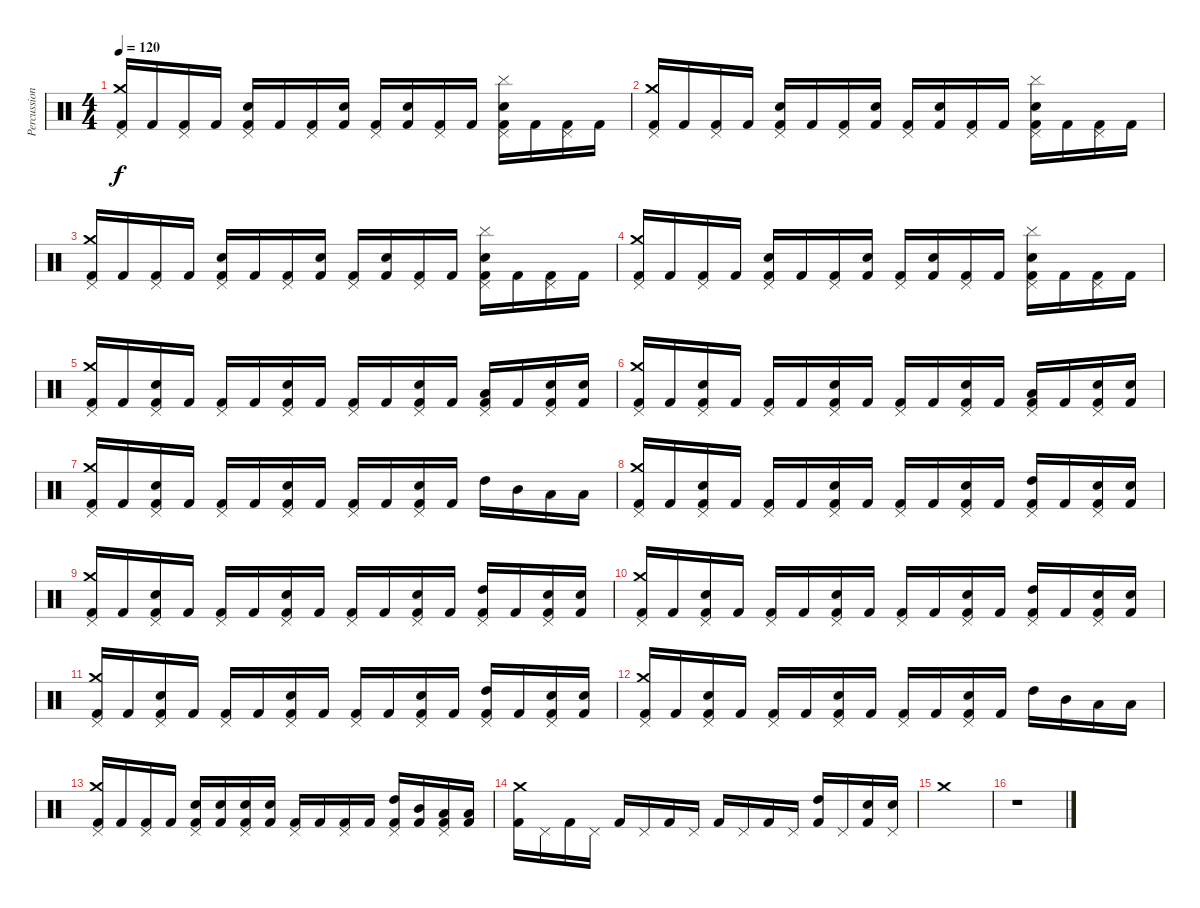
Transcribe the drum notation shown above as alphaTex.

\track ("Percussion" "Percussion") {instrument percussion}
\staff {score}
\articulation defaults
\ts (4 4)
\tempo 120
\clef neutral
\ks c
("Pedal Hi-Hat (hit)" "Crash medium (hit)" "Kick (hit) 2").16{dy f} "Kick (hit) 2".16 ("Pedal Hi-Hat (hit)" "Kick (hit) 2").16 "Kick (hit) 2".16 ("Pedal Hi-Hat (hit)" "Electric Snare (hit)" "Kick (hit) 2").16 "Kick (hit) 2".16 ("Pedal Hi-Hat (hit)" "Kick (hit) 2").16 ("Snare (hit) 2" "Kick (hit) 2").16 ("Pedal Hi-Hat (hit)" "Kick (hit) 2").16 ("Snare (hit) 2" "Kick (hit) 2").16 ("Pedal Hi-Hat (hit)" "Kick (hit) 2").16 "Kick (hit) 2".16 ("Pedal Hi-Hat (hit)" "Cymbal (hit)" "Electric Snare (hit)" "Kick (hit) 2").16 "Kick (hit) 2".16 ("Pedal Hi-Hat (hit)" "Kick (hit) 2").16 "Kick (hit) 2".16 |
("Pedal Hi-Hat (hit)" "Crash medium (hit)" "Kick (hit) 2").16 "Kick (hit) 2".16 ("Pedal Hi-Hat (hit)" "Kick (hit) 2").16 "Kick (hit) 2".16 ("Pedal Hi-Hat (hit)" "Electric Snare (hit)" "Kick (hit) 2").16 "Kick (hit) 2".16 ("Pedal Hi-Hat (hit)" "Kick (hit) 2").16 ("Snare (hit) 2" "Kick (hit) 2").16 ("Pedal Hi-Hat (hit)" "Kick (hit) 2").16 ("Snare (hit) 2" "Kick (hit) 2").16 ("Pedal Hi-Hat (hit)" "Kick (hit) 2").16 "Kick (hit) 2".16 ("Pedal Hi-Hat (hit)" "Cymbal (hit)" "Electric Snare (hit)" "Kick (hit) 2").16 "Kick (hit) 2".16 ("Pedal Hi-Hat (hit)" "Kick (hit) 2").16 "Kick (hit) 2".16 |
("Pedal Hi-Hat (hit)" "Crash medium (hit)" "Kick (hit) 2").16 "Kick (hit) 2".16 ("Pedal Hi-Hat (hit)" "Kick (hit) 2").16 "Kick (hit) 2".16 ("Pedal Hi-Hat (hit)" "Electric Snare (hit)" "Kick (hit) 2").16 "Kick (hit) 2".16 ("Pedal Hi-Hat (hit)" "Kick (hit) 2").16 ("Snare (hit) 2" "Kick (hit) 2").16 ("Pedal Hi-Hat (hit)" "Kick (hit) 2").16 ("Snare (hit) 2" "Kick (hit) 2").16 ("Pedal Hi-Hat (hit)" "Kick (hit) 2").16 "Kick (hit) 2".16 ("Pedal Hi-Hat (hit)" "Cymbal (hit)" "Electric Snare (hit)" "Kick (hit) 2").16 "Kick (hit) 2".16 ("Pedal Hi-Hat (hit)" "Kick (hit) 2").16 "Kick (hit) 2".16 |
("Pedal Hi-Hat (hit)" "Crash medium (hit)" "Kick (hit) 2").16 "Kick (hit) 2".16 ("Pedal Hi-Hat (hit)" "Kick (hit) 2").16 "Kick (hit) 2".16 ("Pedal Hi-Hat (hit)" "Electric Snare (hit)" "Kick (hit) 2").16 "Kick (hit) 2".16 ("Pedal Hi-Hat (hit)" "Kick (hit) 2").16 ("Snare (hit) 2" "Kick (hit) 2").16 ("Pedal Hi-Hat (hit)" "Kick (hit) 2").16 ("Snare (hit) 2" "Kick (hit) 2").16 ("Pedal Hi-Hat (hit)" "Kick (hit) 2").16 "Kick (hit) 2".16 ("Pedal Hi-Hat (hit)" "Cymbal (hit)" "Electric Snare (hit)" "Kick (hit) 2").16 "Kick (hit) 2".16 ("Pedal Hi-Hat (hit)" "Kick (hit) 2").16 "Kick (hit) 2".16 |
("Pedal Hi-Hat (hit)" "Crash medium (hit)" "Kick (hit) 2").16 "Kick (hit) 2".16 ("Pedal Hi-Hat (hit)" "Electric Snare (hit)" "Kick (hit) 2").16 "Kick (hit) 2".16 ("Pedal Hi-Hat (hit)" "Kick (hit) 2").16 "Kick (hit) 2".16 ("Pedal Hi-Hat (hit)" "Electric Snare (hit)" "Kick (hit) 2").16 "Kick (hit) 2".16 ("Pedal Hi-Hat (hit)" "Kick (hit) 2").16 "Kick (hit) 2".16 ("Pedal Hi-Hat (hit)" "Electric Snare (hit)" "Kick (hit) 2").16 "Kick (hit) 2".16 ("Pedal Hi-Hat (hit)" "Low Floor Tom (hit)" "Kick (hit) 2").16 "Kick (hit) 2".16 ("Pedal Hi-Hat (hit)" "Snare (hit) 2" "Kick (hit) 2").16 ("Electric Snare (hit)" "Kick (hit) 2").16 |
("Pedal Hi-Hat (hit)" "Crash medium (hit)" "Kick (hit) 2").16 "Kick (hit) 2".16 ("Pedal Hi-Hat (hit)" "Electric Snare (hit)" "Kick (hit) 2").16 "Kick (hit) 2".16 ("Pedal Hi-Hat (hit)" "Kick (hit) 2").16 "Kick (hit) 2".16 ("Pedal Hi-Hat (hit)" "Electric Snare (hit)" "Kick (hit) 2").16 "Kick (hit) 2".16 ("Pedal Hi-Hat (hit)" "Kick (hit) 2").16 "Kick (hit) 2".16 ("Pedal Hi-Hat (hit)" "Electric Snare (hit)" "Kick (hit) 2").16 "Kick (hit) 2".16 ("Pedal Hi-Hat (hit)" "Low Floor Tom (hit)" "Kick (hit) 2").16 "Kick (hit) 2".16 ("Pedal Hi-Hat (hit)" "Snare (hit) 2" "Kick (hit) 2").16 ("Electric Snare (hit)" "Kick (hit) 2").16 |
("Pedal Hi-Hat (hit)" "Crash medium (hit)" "Kick (hit) 2").16 "Kick (hit) 2".16 ("Pedal Hi-Hat (hit)" "Electric Snare (hit)" "Kick (hit) 2").16 "Kick (hit) 2".16 ("Pedal Hi-Hat (hit)" "Kick (hit) 2").16 "Kick (hit) 2".16 ("Pedal Hi-Hat (hit)" "Electric Snare (hit)" "Kick (hit) 2").16 "Kick (hit) 2".16 ("Pedal Hi-Hat (hit)" "Kick (hit) 2").16 "Kick (hit) 2".16 ("Pedal Hi-Hat (hit)" "Electric Snare (hit)" "Kick (hit) 2").16 "Kick (hit) 2".16 "High Tom (hit)".16 "Mid Tom (hit)".16 "Low Tom (hit)".16 "Low Floor Tom (hit)".16 |
("Pedal Hi-Hat (hit)" "Crash medium (hit)" "Kick (hit) 2").16 "Kick (hit) 2".16 ("Pedal Hi-Hat (hit)" "Electric Snare (hit)" "Kick (hit) 2").16 "Kick (hit) 2".16 ("Pedal Hi-Hat (hit)" "Kick (hit) 2").16 "Kick (hit) 2".16 ("Pedal Hi-Hat (hit)" "Electric Snare (hit)" "Kick (hit) 2").16 "Kick (hit) 2".16 ("Pedal Hi-Hat (hit)" "Kick (hit) 2").16 "Kick (hit) 2".16 ("Pedal Hi-Hat (hit)" "Electric Snare (hit)" "Kick (hit) 2").16 "Kick (hit) 2".16 ("Pedal Hi-Hat (hit)" "High Tom (hit)" "Kick (hit) 2").16 "Kick (hit) 2".16 ("Pedal Hi-Hat (hit)" "Snare (hit) 2" "Kick (hit) 2").16 ("Electric Snare (hit)" "Kick (hit) 2").16 |
("Pedal Hi-Hat (hit)" "Crash medium (hit)" "Kick (hit) 2").16 "Kick (hit) 2".16 ("Pedal Hi-Hat (hit)" "Electric Snare (hit)" "Kick (hit) 2").16 "Kick (hit) 2".16 ("Pedal Hi-Hat (hit)" "Kick (hit) 2").16 "Kick (hit) 2".16 ("Pedal Hi-Hat (hit)" "Electric Snare (hit)" "Kick (hit) 2").16 "Kick (hit) 2".16 ("Pedal Hi-Hat (hit)" "Kick (hit) 2").16 "Kick (hit) 2".16 ("Pedal Hi-Hat (hit)" "Electric Snare (hit)" "Kick (hit) 2").16 "Kick (hit) 2".16 ("Pedal Hi-Hat (hit)" "High Tom (hit)" "Kick (hit) 2").16 "Kick (hit) 2".16 ("Pedal Hi-Hat (hit)" "Snare (hit) 2" "Kick (hit) 2").16 ("Electric Snare (hit)" "Kick (hit) 2").16 |
("Pedal Hi-Hat (hit)" "Crash medium (hit)" "Kick (hit) 2").16 "Kick (hit) 2".16 ("Pedal Hi-Hat (hit)" "Electric Snare (hit)" "Kick (hit) 2").16 "Kick (hit) 2".16 ("Pedal Hi-Hat (hit)" "Kick (hit) 2").16 "Kick (hit) 2".16 ("Pedal Hi-Hat (hit)" "Electric Snare (hit)" "Kick (hit) 2").16 "Kick (hit) 2".16 ("Pedal Hi-Hat (hit)" "Kick (hit) 2").16 "Kick (hit) 2".16 ("Pedal Hi-Hat (hit)" "Electric Snare (hit)" "Kick (hit) 2").16 "Kick (hit) 2".16 ("Pedal Hi-Hat (hit)" "High Tom (hit)" "Kick (hit) 2").16 "Kick (hit) 2".16 ("Pedal Hi-Hat (hit)" "Snare (hit) 2" "Kick (hit) 2").16 ("Electric Snare (hit)" "Kick (hit) 2").16 |
("Pedal Hi-Hat (hit)" "Crash medium (hit)" "Kick (hit) 2").16 "Kick (hit) 2".16 ("Pedal Hi-Hat (hit)" "Electric Snare (hit)" "Kick (hit) 2").16 "Kick (hit) 2".16 ("Pedal Hi-Hat (hit)" "Kick (hit) 2").16 "Kick (hit) 2".16 ("Pedal Hi-Hat (hit)" "Electric Snare (hit)" "Kick (hit) 2").16 "Kick (hit) 2".16 ("Pedal Hi-Hat (hit)" "Kick (hit) 2").16 "Kick (hit) 2".16 ("Pedal Hi-Hat (hit)" "Electric Snare (hit)" "Kick (hit) 2").16 "Kick (hit) 2".16 ("Pedal Hi-Hat (hit)" "High Tom (hit)" "Kick (hit) 2").16 "Kick (hit) 2".16 ("Pedal Hi-Hat (hit)" "Snare (hit) 2" "Kick (hit) 2").16 ("Electric Snare (hit)" "Kick (hit) 2").16 |
("Pedal Hi-Hat (hit)" "Crash medium (hit)" "Kick (hit) 2").16 "Kick (hit) 2".16 ("Pedal Hi-Hat (hit)" "Electric Snare (hit)" "Kick (hit) 2").16 "Kick (hit) 2".16 ("Pedal Hi-Hat (hit)" "Kick (hit) 2").16 "Kick (hit) 2".16 ("Pedal Hi-Hat (hit)" "Electric Snare (hit)" "Kick (hit) 2").16 "Kick (hit) 2".16 ("Pedal Hi-Hat (hit)" "Kick (hit) 2").16 "Kick (hit) 2".16 ("Pedal Hi-Hat (hit)" "Electric Snare (hit)" "Kick (hit) 2").16 "Kick (hit) 2".16 "High Tom (hit)".16 "Mid Tom (hit)".16 "Low Tom (hit)".16 "Low Floor Tom (hit)".16 |
("Pedal Hi-Hat (hit)" "Crash medium (hit)" "Kick (hit) 2").16 "Kick (hit) 2".16 ("Pedal Hi-Hat (hit)" "Kick (hit) 2").16 "Kick (hit) 2".16 ("Pedal Hi-Hat (hit)" "Snare (hit) 2" "Kick (hit) 2").16 ("Snare (hit) 2" "Kick (hit) 2").16 ("Pedal Hi-Hat (hit)" "Electric Snare (hit)" "Kick (hit) 2").16 ("Electric Snare (hit)" "Kick (hit) 2").16 ("Pedal Hi-Hat (hit)" "Kick (hit) 2").16 "Kick (hit) 2".16 ("Pedal Hi-Hat (hit)" "Kick (hit) 2").16 "Kick (hit) 2".16 ("Pedal Hi-Hat (hit)" "High Tom (hit)" "Kick (hit) 2").16 ("Mid Tom (hit)" "Kick (hit) 2").16 ("Pedal Hi-Hat (hit)" "Low Tom (hit)" "Kick (hit) 2").16 ("Low Floor Tom (hit)" "Kick (hit) 2").16 |
("Crash medium (hit)" "Kick (hit) 2").16 "Pedal Hi-Hat (hit)".16 "Kick (hit) 2".16 "Pedal Hi-Hat (hit)".16 "Kick (hit) 2".16 "Pedal Hi-Hat (hit)".16 "Kick (hit) 2".16 "Pedal Hi-Hat (hit)".16 "Kick (hit) 2".16 "Pedal Hi-Hat (hit)".16 "Kick (hit) 2".16 "Pedal Hi-Hat (hit)".16 ("High Tom (hit)" "Kick (hit) 2").16 "Pedal Hi-Hat (hit)".16 ("Snare (hit) 2" "Kick (hit) 2").16 ("Pedal Hi-Hat (hit)" "Electric Snare (hit)").16 |
"Crash medium (hit)".1 |
r.1
